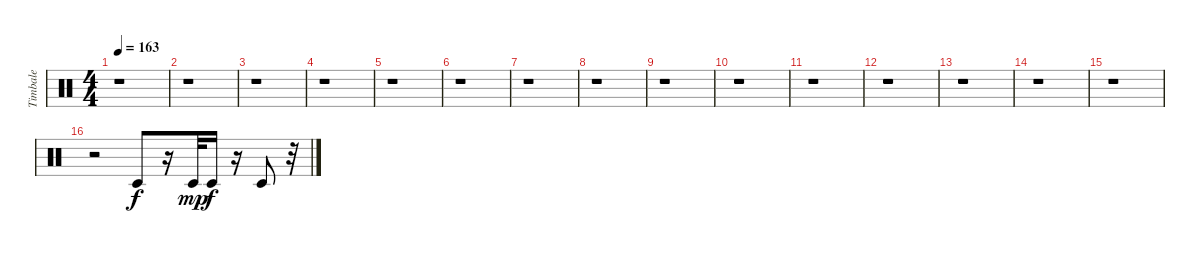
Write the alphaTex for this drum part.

\track ("Timbale" "Timbale") {instrument percussion}
\staff {score}
\articulation defaults
\ts (4 4)
\tempo 163
\clef neutral
\ks c
r.1{dy f} |
r.1 |
r.1 |
r.1 |
r.1 |
r.1 |
r.1 |
r.1 |
r.1 |
r.1 |
r.1 |
r.1 |
r.1 |
r.1 |
r.1 |
r.2 "Timbale low (hit)".8 r.16 "Timbale low (hit)".32{dy mp} "Timbale low (hit)".16{dy f} r.16 "Timbale low (hit)".8 r.32
